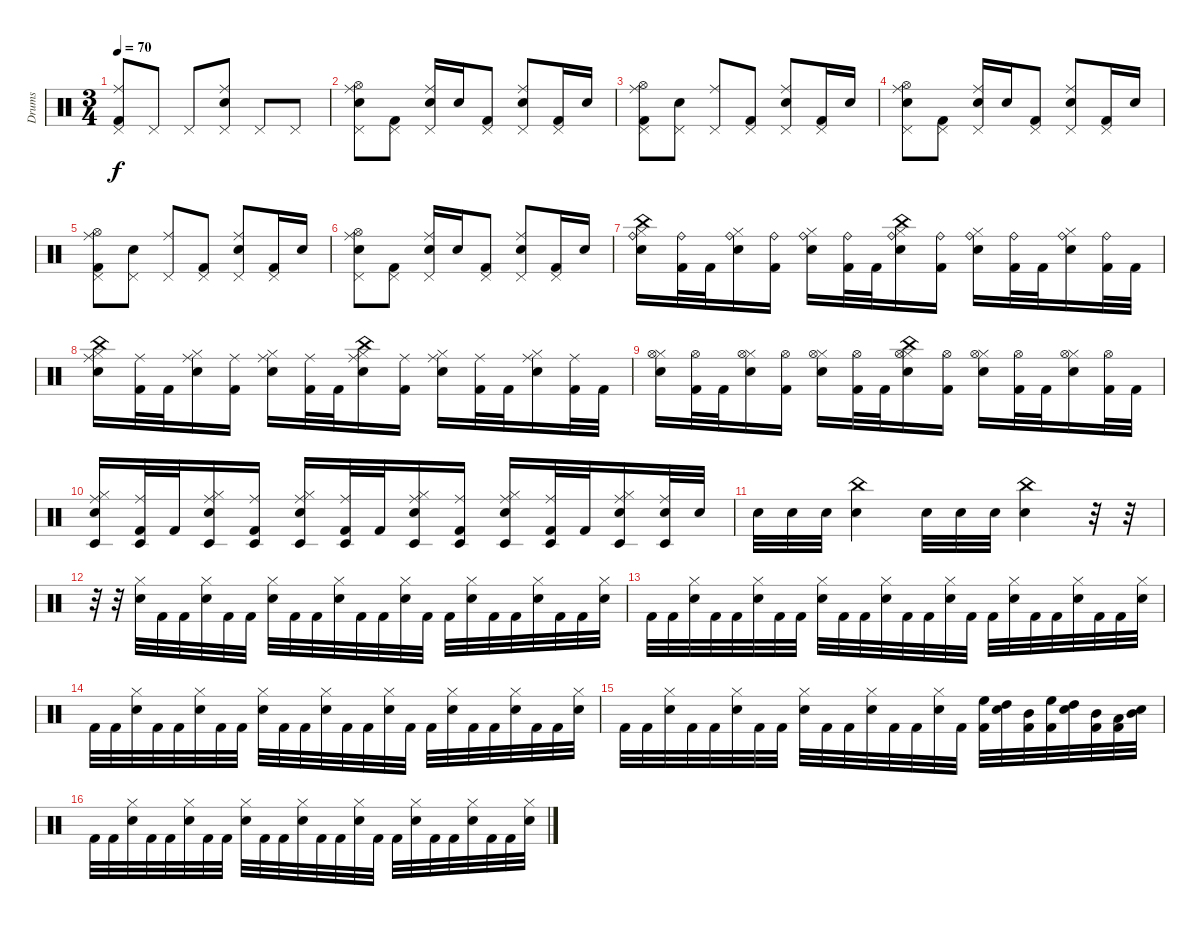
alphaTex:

\track ("Drums" "Drums") {instrument percussion}
\staff {score}
\articulation defaults
\ts (3 4)
\tempo 70
\clef neutral
\ks c
("Pedal Hi-Hat (hit)" "Kick (hit) 2" "Ride (middle)").8{dy f} "Pedal Hi-Hat (hit)".8 "Pedal Hi-Hat (hit)".8 ("Pedal Hi-Hat (hit)" "Electric Snare (hit)" "Ride (middle)").8 "Pedal Hi-Hat (hit)".8 "Pedal Hi-Hat (hit)".8 |
("Pedal Hi-Hat (hit)" "Electric Snare (hit)" "Hi-Hat (open)" "Ride (middle)").8 ("Pedal Hi-Hat (hit)" "Kick (hit) 2").8 ("Pedal Hi-Hat (hit)" "Electric Snare (hit)" "Ride (middle)").16 "Electric Snare (hit)".16 ("Pedal Hi-Hat (hit)" "Kick (hit) 2").8 ("Pedal Hi-Hat (hit)" "Electric Snare (hit)" "Ride (middle)").8 ("Pedal Hi-Hat (hit)" "Kick (hit) 2").16 "Electric Snare (hit)".16 |
("Pedal Hi-Hat (hit)" "Kick (hit) 2" "Hi-Hat (open)" "Ride (middle)").8 ("Pedal Hi-Hat (hit)" "Electric Snare (hit)").8 ("Pedal Hi-Hat (hit)" "Ride (middle)").8 ("Pedal Hi-Hat (hit)" "Kick (hit) 2").8 ("Pedal Hi-Hat (hit)" "Electric Snare (hit)" "Ride (middle)").8 ("Pedal Hi-Hat (hit)" "Kick (hit) 2").16 "Electric Snare (hit)".16 |
("Pedal Hi-Hat (hit)" "Electric Snare (hit)" "Hi-Hat (open)" "Ride (middle)").8 ("Pedal Hi-Hat (hit)" "Kick (hit) 2").8 ("Pedal Hi-Hat (hit)" "Electric Snare (hit)" "Ride (middle)").16 "Electric Snare (hit)".16 ("Pedal Hi-Hat (hit)" "Kick (hit) 2").8 ("Pedal Hi-Hat (hit)" "Electric Snare (hit)" "Ride (middle)").8 ("Pedal Hi-Hat (hit)" "Kick (hit) 2").16 "Electric Snare (hit)".16 |
("Pedal Hi-Hat (hit)" "Kick (hit) 2" "Hi-Hat (open)" "Ride (middle)").8 ("Pedal Hi-Hat (hit)" "Electric Snare (hit)").8 ("Pedal Hi-Hat (hit)" "Ride (middle)").8 ("Pedal Hi-Hat (hit)" "Kick (hit) 2").8 ("Pedal Hi-Hat (hit)" "Electric Snare (hit)" "Ride (middle)").8 ("Pedal Hi-Hat (hit)" "Kick (hit) 2").16 "Electric Snare (hit)".16 |
("Pedal Hi-Hat (hit)" "Electric Snare (hit)" "Hi-Hat (open)" "Ride (middle)").8 ("Pedal Hi-Hat (hit)" "Kick (hit) 2").8 ("Pedal Hi-Hat (hit)" "Electric Snare (hit)" "Ride (middle)").16 "Electric Snare (hit)".16 ("Pedal Hi-Hat (hit)" "Kick (hit) 2").8 ("Pedal Hi-Hat (hit)" "Electric Snare (hit)" "Ride (middle)").8 ("Pedal Hi-Hat (hit)" "Kick (hit) 2").16 "Electric Snare (hit)".16 |
("Hi-Hat (closed)" "Electric Snare (hit)" "Ride (bell)" "China (hit)").16 ("Kick (hit) 2" "Ride (bell)").32 "Kick (hit) 2".32 ("Hi-Hat (closed)" "Electric Snare (hit)" "Ride (bell)").16 ("Kick (hit) 2" "Ride (bell)").16 ("Hi-Hat (closed)" "Electric Snare (hit)" "Ride (bell)").16 ("Kick (hit) 2" "Ride (bell)").32 "Kick (hit) 2".32 ("Hi-Hat (closed)" "Electric Snare (hit)" "Ride (bell)" "China (hit)").16 ("Kick (hit) 2" "Ride (bell)").16 ("Hi-Hat (closed)" "Electric Snare (hit)" "Ride (bell)").16 ("Kick (hit) 2" "Ride (bell)").32 "Kick (hit) 2".32 ("Hi-Hat (closed)" "Electric Snare (hit)" "Ride (bell)").16 ("Kick (hit) 2" "Ride (bell)").32 "Kick (hit) 2".32 |
("Hi-Hat (closed)" "Electric Snare (hit)" "Ride (middle)" "China (hit)").16 ("Kick (hit) 2" "Ride (middle)").32 "Kick (hit) 2".32 ("Hi-Hat (closed)" "Electric Snare (hit)" "Ride (middle)").16 ("Kick (hit) 2" "Ride (middle)").16 ("Hi-Hat (closed)" "Electric Snare (hit)" "Ride (middle)").16 ("Kick (hit) 2" "Ride (middle)").32 "Kick (hit) 2".32 ("Hi-Hat (closed)" "Electric Snare (hit)" "Ride (middle)" "China (hit)").16 ("Kick (hit) 2" "Ride (middle)").16 ("Hi-Hat (closed)" "Electric Snare (hit)" "Ride (middle)").16 ("Kick (hit) 2" "Ride (middle)").32 "Kick (hit) 2".32 ("Hi-Hat (closed)" "Electric Snare (hit)" "Ride (middle)").16 ("Kick (hit) 2" "Ride (middle)").32 "Kick (hit) 2".32 |
("Hi-Hat (closed)" "Electric Snare (hit)" "Hi-Hat (open)").16 ("Kick (hit) 2" "Hi-Hat (open)").32 "Kick (hit) 2".32 ("Hi-Hat (closed)" "Electric Snare (hit)" "Hi-Hat (open)").16 ("Kick (hit) 2" "Hi-Hat (open)").16 ("Hi-Hat (closed)" "Electric Snare (hit)" "Hi-Hat (open)").16 ("Kick (hit) 2" "Hi-Hat (open)").32 "Kick (hit) 2".32 ("Hi-Hat (closed)" "Electric Snare (hit)" "Hi-Hat (open)" "China (hit)").16 ("Kick (hit) 2" "Hi-Hat (open)").16 ("Hi-Hat (closed)" "Electric Snare (hit)" "Hi-Hat (open)").16 ("Kick (hit) 2" "Hi-Hat (open)").32 "Kick (hit) 2".32 ("Hi-Hat (closed)" "Electric Snare (hit)" "Hi-Hat (open)").16 ("Kick (hit) 2" "Hi-Hat (open)").32 "Kick (hit) 2".32 |
("Hi-Hat (closed)" "Electric Snare (hit)" "Ride (middle)" "Timbale low (hit)").16 ("Kick (hit) 2" "Ride (middle)" "Timbale low (hit)").32 "Kick (hit) 2".32 ("Hi-Hat (closed)" "Electric Snare (hit)" "Ride (middle)" "Timbale low (hit)").16 ("Kick (hit) 2" "Ride (middle)" "Timbale low (hit)").16 ("Hi-Hat (closed)" "Electric Snare (hit)" "Ride (middle)" "Timbale low (hit)").16 ("Kick (hit) 2" "Ride (middle)" "Timbale low (hit)").32 "Kick (hit) 2".32 ("Hi-Hat (closed)" "Electric Snare (hit)" "Ride (middle)" "Timbale low (hit)").16 ("Kick (hit) 2" "Ride (middle)" "Timbale low (hit)").16 ("Hi-Hat (closed)" "Electric Snare (hit)" "Ride (middle)" "Timbale low (hit)").16 ("Kick (hit) 2" "Ride (middle)" "Timbale low (hit)").32 "Kick (hit) 2".32 ("Hi-Hat (closed)" "Electric Snare (hit)" "Ride (middle)" "Timbale low (hit)").16 ("Electric Snare (hit)" "Ride (middle)" "Timbale low (hit)").32 "Electric Snare (hit)".32 |
"Electric Snare (hit)".32 "Electric Snare (hit)".32 "Electric Snare (hit)".32 ("China (hit)" "Electric Snare (hit)").4 "Electric Snare (hit)".32 "Electric Snare (hit)".32 "Electric Snare (hit)".32 ("China (hit)" "Electric Snare (hit)").4 r.32 r.32 |
r.32 r.32 ("Hi-Hat (closed)" "Electric Snare (hit)").32 "Kick (hit) 2".32 "Kick (hit) 2".32 ("Hi-Hat (closed)" "Electric Snare (hit)").32 "Kick (hit) 2".32 "Kick (hit) 2".32 ("Hi-Hat (closed)" "Electric Snare (hit)").32 "Kick (hit) 2".32 "Kick (hit) 2".32 ("Hi-Hat (closed)" "Electric Snare (hit)").32 "Kick (hit) 2".32 "Kick (hit) 2".32 ("Hi-Hat (closed)" "Electric Snare (hit)").32 "Kick (hit) 2".32 "Kick (hit) 2".32 ("Hi-Hat (closed)" "Electric Snare (hit)").32 "Kick (hit) 2".32 "Kick (hit) 2".32 ("Hi-Hat (closed)" "Electric Snare (hit)").32 "Kick (hit) 2".32 "Kick (hit) 2".32 ("Hi-Hat (closed)" "Electric Snare (hit)").32 |
"Kick (hit) 2".32 "Kick (hit) 2".32 ("Hi-Hat (closed)" "Electric Snare (hit)").32 "Kick (hit) 2".32 "Kick (hit) 2".32 ("Hi-Hat (closed)" "Electric Snare (hit)").32 "Kick (hit) 2".32 "Kick (hit) 2".32 ("Hi-Hat (closed)" "Electric Snare (hit)").32 "Kick (hit) 2".32 "Kick (hit) 2".32 ("Hi-Hat (closed)" "Electric Snare (hit)").32 "Kick (hit) 2".32 "Kick (hit) 2".32 ("Hi-Hat (closed)" "Electric Snare (hit)").32 "Kick (hit) 2".32 "Kick (hit) 2".32 ("Hi-Hat (closed)" "Electric Snare (hit)").32 "Kick (hit) 2".32 "Kick (hit) 2".32 ("Hi-Hat (closed)" "Electric Snare (hit)").32 "Kick (hit) 2".32 "Kick (hit) 2".32 ("Hi-Hat (closed)" "Electric Snare (hit)").32 |
"Kick (hit) 2".32 "Kick (hit) 2".32 ("Hi-Hat (closed)" "Electric Snare (hit)").32 "Kick (hit) 2".32 "Kick (hit) 2".32 ("Hi-Hat (closed)" "Electric Snare (hit)").32 "Kick (hit) 2".32 "Kick (hit) 2".32 ("Hi-Hat (closed)" "Electric Snare (hit)").32 "Kick (hit) 2".32 "Kick (hit) 2".32 ("Hi-Hat (closed)" "Electric Snare (hit)").32 "Kick (hit) 2".32 "Kick (hit) 2".32 ("Hi-Hat (closed)" "Electric Snare (hit)").32 "Kick (hit) 2".32 "Kick (hit) 2".32 ("Hi-Hat (closed)" "Electric Snare (hit)").32 "Kick (hit) 2".32 "Kick (hit) 2".32 ("Hi-Hat (closed)" "Electric Snare (hit)").32 "Kick (hit) 2".32 "Kick (hit) 2".32 ("Hi-Hat (closed)" "Electric Snare (hit)").32 |
"Kick (hit) 2".32 "Kick (hit) 2".32 ("Hi-Hat (closed)" "Electric Snare (hit)").32 "Kick (hit) 2".32 "Kick (hit) 2".32 ("Hi-Hat (closed)" "Electric Snare (hit)").32 "Kick (hit) 2".32 "Kick (hit) 2".32 ("Hi-Hat (closed)" "Electric Snare (hit)").32 "Kick (hit) 2".32 "Kick (hit) 2".32 ("Hi-Hat (closed)" "Electric Snare (hit)").32 "Kick (hit) 2".32 "Kick (hit) 2".32 ("Hi-Hat (closed)" "Electric Snare (hit)").32 "Kick (hit) 2".32 ("High Floor Tom (hit)" "Kick (hit) 2").32 ("Electric Snare (hit)" "High Tom (hit)").32 ("Mid Tom (hit)" "Kick (hit) 2").32 ("High Floor Tom (hit)" "Kick (hit) 2").32 ("Electric Snare (hit)" "High Tom (hit)").32 ("Mid Tom (hit)" "Kick (hit) 2").32 ("Low Tom (hit)" "Kick (hit) 2").32 ("Electric Snare (hit)" "Mid Tom (hit)").32 |
"Kick (hit) 2".32 "Kick (hit) 2".32 ("Hi-Hat (closed)" "Electric Snare (hit)").32 "Kick (hit) 2".32 "Kick (hit) 2".32 ("Hi-Hat (closed)" "Electric Snare (hit)").32 "Kick (hit) 2".32 "Kick (hit) 2".32 ("Hi-Hat (closed)" "Electric Snare (hit)").32 "Kick (hit) 2".32 "Kick (hit) 2".32 ("Hi-Hat (closed)" "Electric Snare (hit)").32 "Kick (hit) 2".32 "Kick (hit) 2".32 ("Hi-Hat (closed)" "Electric Snare (hit)").32 "Kick (hit) 2".32 "Kick (hit) 2".32 ("Hi-Hat (closed)" "Electric Snare (hit)").32 "Kick (hit) 2".32 "Kick (hit) 2".32 ("Hi-Hat (closed)" "Electric Snare (hit)").32 "Kick (hit) 2".32 "Kick (hit) 2".32 ("Hi-Hat (closed)" "Electric Snare (hit)").32
